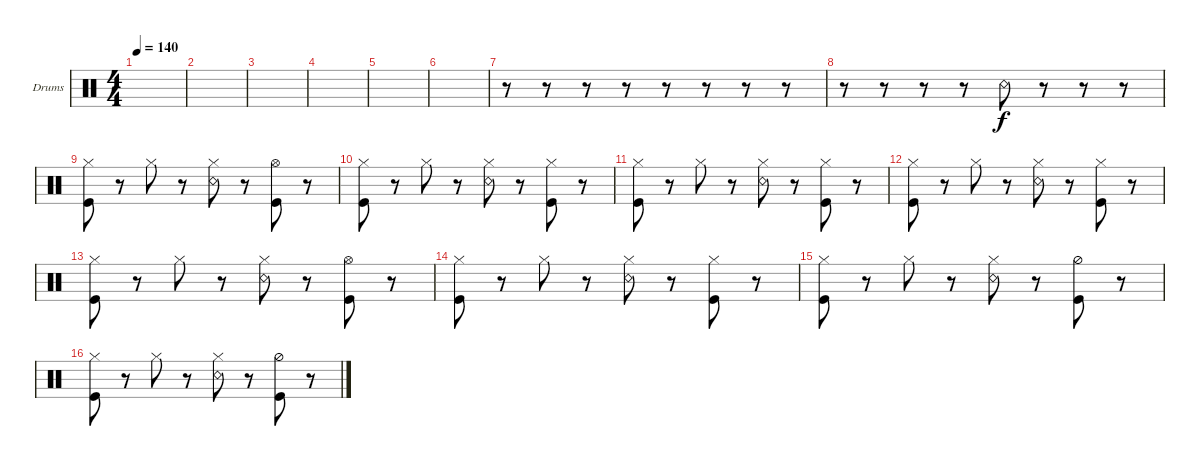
\defaultSystemsLayout 4
\bracketExtendMode groupsimilarinstruments
\firstSystemTrackNameOrientation horizontal
\otherSystemsTrackNameOrientation horizontal
\track ("Drumkit" "Drums") {instrument percussion}
\staff {score}
\articulation defaults
\ts (4 4)
\tempo 140
\clef neutral
\ks c
|
|
|
|
|
|
r.8 r.8 r.8 r.8 r.8 r.8 r.8 r.8 |
r.8 r.8 r.8 r.8 "Snare (rim shot)".8 r.8 r.8 r.8 |
("Hi-Hat (closed)" "Kick (hit)").8 r.8 "Hi-Hat (closed)".8 r.8 ("Hi-Hat (closed)" "Snare (rim shot)").8 r.8 ("Hi-Hat (open)" "Kick (hit)").8 r.8 |
("Kick (hit)" "Hi-Hat (closed)").8 r.8 "Hi-Hat (closed)".8 r.8 ("Hi-Hat (closed)" "Snare (rim shot)").8 r.8 ("Hi-Hat (closed)" "Kick (hit)").8 r.8 |
("Hi-Hat (closed)" "Kick (hit)").8 r.8 "Hi-Hat (closed)".8 r.8 ("Hi-Hat (closed)" "Snare (rim shot)").8 r.8 ("Hi-Hat (closed)" "Kick (hit)").8 r.8 |
("Kick (hit)" "Hi-Hat (closed)").8 r.8 "Hi-Hat (closed)".8 r.8 ("Hi-Hat (closed)" "Snare (rim shot)").8 r.8 ("Hi-Hat (closed)" "Kick (hit)").8 r.8 |
("Hi-Hat (closed)" "Kick (hit)").8 r.8 "Hi-Hat (closed)".8 r.8 ("Hi-Hat (closed)" "Snare (rim shot)").8 r.8 ("Hi-Hat (open)" "Kick (hit)").8 r.8 |
("Kick (hit)" "Hi-Hat (closed)").8 r.8 "Hi-Hat (closed)".8 r.8 ("Hi-Hat (closed)" "Snare (rim shot)").8 r.8 ("Hi-Hat (closed)" "Kick (hit)").8 r.8 |
("Hi-Hat (closed)" "Kick (hit)").8 r.8 "Hi-Hat (closed)".8 r.8 ("Hi-Hat (closed)" "Snare (rim shot)").8 r.8 ("Hi-Hat (half)" "Kick (hit)").8 r.8 |
("Hi-Hat (closed)" "Kick (hit)").8 r.8 "Hi-Hat (closed)".8 r.8 ("Hi-Hat (closed)" "Snare (rim shot)").8 r.8 ("Hi-Hat (half)" "Kick (hit)").8 r.8
